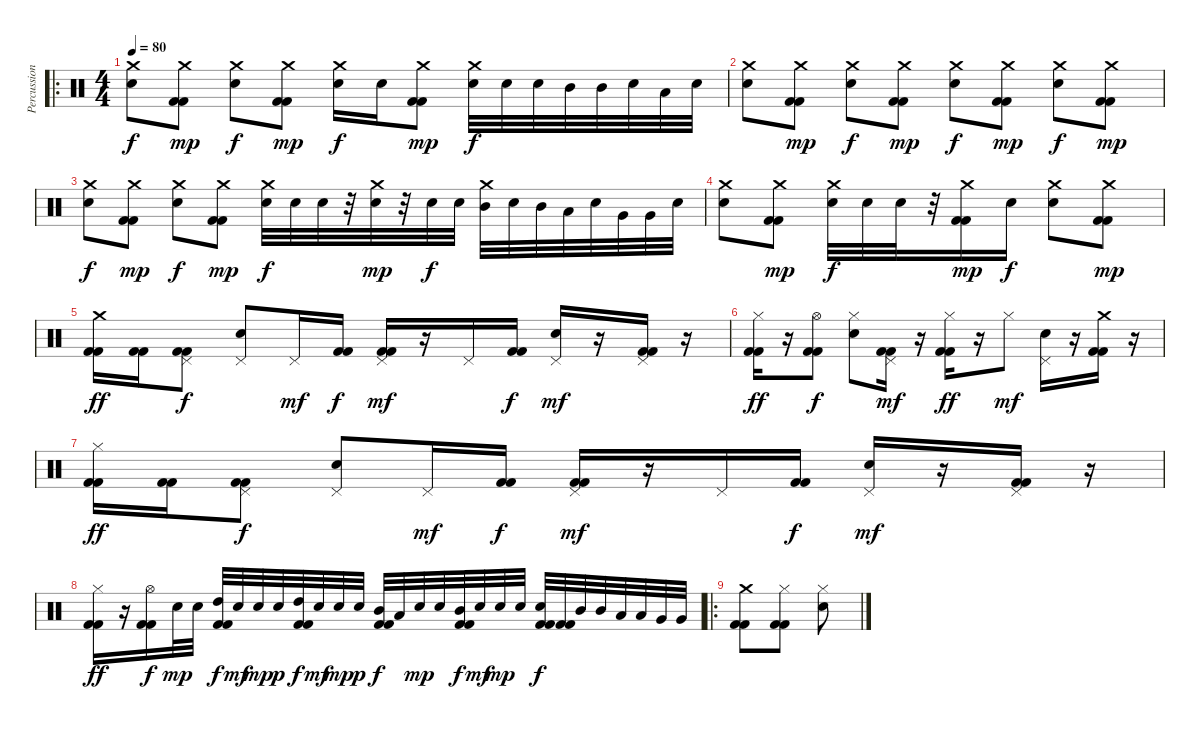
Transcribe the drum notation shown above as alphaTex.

\track ("Percussion" "Percussion") {instrument percussion}
\staff {score}
\articulation defaults
\ro
\ts (4 4)
\tempo 80
\clef neutral
\ks c
("Crash medium (hit)" "Electric Snare (hit)").8{dy f} ("Crash medium (hit)" "Kick (hit) 2" "Kick (hit) 2").8{dy mp} ("Crash medium (hit)" "Electric Snare (hit)").8{dy f} ("Crash medium (hit)" "Kick (hit) 2" "Kick (hit) 2").8{dy mp} ("Crash medium (hit)" "Electric Snare (hit)").16{dy f} "Electric Snare (hit)".16 ("Crash medium (hit)" "Kick (hit) 2" "Kick (hit) 2").8{dy mp} ("Crash medium (hit)" "Electric Snare (hit)").32{dy f} "Electric Snare (hit)".32 "Electric Snare (hit)".32 "Mid Tom (hit)".32 "Mid Tom (hit)".32 "Electric Snare (hit)".32 "Low Tom (hit)".32 "Electric Snare (hit)".32 |
("Crash medium (hit)" "Electric Snare (hit)").8 ("Crash medium (hit)" "Kick (hit) 2" "Kick (hit) 2").8{dy mp} ("Crash medium (hit)" "Electric Snare (hit)").8{dy f} ("Crash medium (hit)" "Kick (hit) 2" "Kick (hit) 2").8{dy mp} ("Crash medium (hit)" "Electric Snare (hit)").8{dy f} ("Crash medium (hit)" "Kick (hit) 2" "Kick (hit) 2").8{dy mp} ("Crash medium (hit)" "Electric Snare (hit)").8{dy f} ("Crash medium (hit)" "Kick (hit) 2" "Kick (hit) 2").8{dy mp} |
("Crash medium (hit)" "Electric Snare (hit)").8{dy f} ("Crash medium (hit)" "Kick (hit) 2" "Kick (hit) 2").8{dy mp} ("Crash medium (hit)" "Electric Snare (hit)").8{dy f} ("Crash medium (hit)" "Kick (hit) 2" "Kick (hit) 2").8{dy mp} ("Crash medium (hit)" "Electric Snare (hit)").32{dy f} "Electric Snare (hit)".32 "Electric Snare (hit)".32 r.32 ("Crash medium (hit)" "Electric Snare (hit)").32{dy mp} r.32 "Electric Snare (hit)".32{dy f} "Electric Snare (hit)".32 ("Crash medium (hit)" "Mid Tom (hit)").32 "Electric Snare (hit)".32 "Mid Tom (hit)".32 "Low Tom (hit)".32 "Electric Snare (hit)".32 "Very Low Tom (hit)".32 "Very Low Tom (hit)".32 "Electric Snare (hit)".32 |
("Crash medium (hit)" "Electric Snare (hit)").8 ("Crash medium (hit)" "Kick (hit) 2" "Kick (hit) 2").8{dy mp} ("Crash medium (hit)" "Electric Snare (hit)").32{dy f} "Electric Snare (hit)".32 "Electric Snare (hit)".32 r.32 ("Crash medium (hit)" "Kick (hit) 2" "Kick (hit) 2").16{dy mp} "Electric Snare (hit)".16{dy f} ("Crash medium (hit)" "Electric Snare (hit)").8 ("Crash medium (hit)" "Kick (hit) 2" "Kick (hit) 2").8{dy mp} |
("Crash medium (hit)" "Kick (hit) 2" "Kick (hit) 2").16{dy ff} ("Kick (hit) 2" "Kick (hit) 2").16 ("Pedal Hi-Hat (hit)" "Kick (hit) 2" "Kick (hit) 2").8{dy f} ("Pedal Hi-Hat (hit)" "Electric Snare (hit)").8 "Pedal Hi-Hat (hit)".16{dy mf} ("Kick (hit) 2" "Kick (hit) 2").16{dy f} ("Pedal Hi-Hat (hit)" "Kick (hit) 2" "Kick (hit) 2").16{dy mf} r.16 "Pedal Hi-Hat (hit)".16 ("Kick (hit) 2" "Kick (hit) 2").16{dy f} ("Pedal Hi-Hat (hit)" "Electric Snare (hit)").16{dy mf} r.16 ("Pedal Hi-Hat (hit)" "Kick (hit) 2" "Kick (hit) 2").16 r.16 |
("Hi-Hat (closed)" "Kick (hit) 2" "Kick (hit) 2").16{dy ff} r.16 ("Hi-Hat (open)" "Kick (hit) 2" "Kick (hit) 2").8{dy f} ("Hi-Hat (closed)" "Electric Snare (hit)").8 ("Pedal Hi-Hat (hit)" "Kick (hit) 2" "Kick (hit) 2").16{dy mf} r.16 ("Hi-Hat (closed)" "Kick (hit) 2" "Kick (hit) 2").16{dy ff} r.16 "Hi-Hat (closed)".8{dy mf} ("Pedal Hi-Hat (hit)" "Electric Snare (hit)").16 r.16 ("Crash medium (hit)" "Kick (hit) 2" "Kick (hit) 2").16 r.16 |
("Hi-Hat (closed)" "Kick (hit) 2" "Kick (hit) 2").16{dy ff} ("Kick (hit) 2" "Kick (hit) 2").16 ("Pedal Hi-Hat (hit)" "Kick (hit) 2" "Kick (hit) 2").8{dy f} ("Pedal Hi-Hat (hit)" "Electric Snare (hit)").8 "Pedal Hi-Hat (hit)".16{dy mf} ("Kick (hit) 2" "Kick (hit) 2").16{dy f} ("Pedal Hi-Hat (hit)" "Kick (hit) 2" "Kick (hit) 2").16{dy mf} r.16 "Pedal Hi-Hat (hit)".16 ("Kick (hit) 2" "Kick (hit) 2").16{dy f} ("Pedal Hi-Hat (hit)" "Electric Snare (hit)").16{dy mf} r.16 ("Pedal Hi-Hat (hit)" "Kick (hit) 2" "Kick (hit) 2").16 r.16 |
("Hi-Hat (closed)" "Kick (hit) 2" "Kick (hit) 2").16{dy ff} r.16 ("Hi-Hat (open)" "Kick (hit) 2" "Kick (hit) 2").16{dy f} "Electric Snare (hit)".32{dy mp} "Electric Snare (hit)".32 ("High Tom (hit)" "Kick (hit) 2" "Kick (hit) 2").32{dy f} "Electric Snare (hit)".32{dy mf} "Electric Snare (hit)".32{dy mp} "Electric Snare (hit)".32{dy p} ("High Tom (hit)" "Kick (hit) 2" "Kick (hit) 2").32{dy f} "Electric Snare (hit)".32{dy mf} "Electric Snare (hit)".32{dy mp} "Electric Snare (hit)".32{dy p} ("Mid Tom (hit)" "Kick (hit) 2" "Kick (hit) 2").32{dy f} "Low Tom (hit)".32 "Electric Snare (hit)".32{dy mp} "Electric Snare (hit)".32 ("Mid Tom (hit)" "Kick (hit) 2" "Kick (hit) 2").32{dy f} "Electric Snare (hit)".32{dy mf} "Electric Snare (hit)".32{dy mp} "Electric Snare (hit)".32 ("Electric Snare (hit)" "Kick (hit) 2" "Kick (hit) 2").32{dy f} ("Kick (hit) 2" "Kick (hit) 2").32 "Mid Tom (hit)".32 "Mid Tom (hit)".32 "Low Tom (hit)".32 "Low Tom (hit)".32 "Very Low Tom (hit)".32 "Very Low Tom (hit)".32 |
\ro
("Crash medium (hit)" "Kick (hit) 2" "Kick (hit) 2").8 ("Hi-Hat (closed)" "Kick (hit) 2" "Kick (hit) 2").8 ("Hi-Hat (closed)" "Electric Snare (hit)").8
